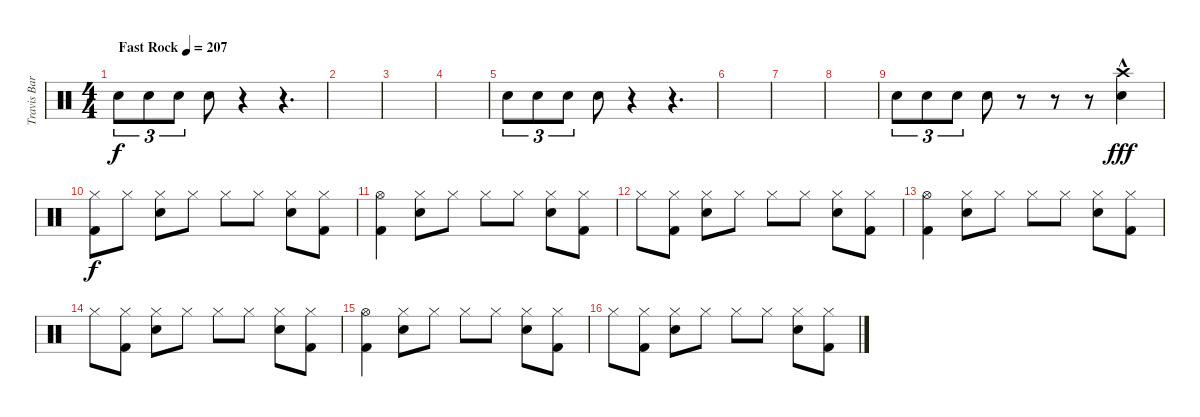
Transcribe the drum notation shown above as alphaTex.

\track ("Travis Barker" "Travis Bar") {instrument percussion}
\staff {score}
\articulation defaults
\ts (4 4)
\tempo (207 "Fast Rock")
\clef neutral
\ks c "Electric Snare (hit)".8{tu (3 2) dy f} "Electric Snare (hit)".8{tu (3 2)} "Electric Snare (hit)".8{tu (3 2)} "Electric Snare (hit)".8
r.4 r.4{d} |
|
|
|
"Electric Snare (hit)".8{tu (3 2)} "Electric Snare (hit)".8{tu (3 2)} "Electric Snare (hit)".8{tu (3 2)} "Electric Snare (hit)".8 r.4 r.4{d} |
|
|
|
"Electric Snare (hit)".8{tu (3 2)} "Electric Snare (hit)".8{tu (3 2)} "Electric Snare (hit)".8{tu (3 2)} "Electric Snare (hit)".8 r.8 r.8 r.8 ("Crash high (hit)"{hac} "Electric Snare (hit)").4{dy fff} |
("Hi-Hat (closed)" "Kick (hit) 2").8{dy f} "Hi-Hat (closed)".8 ("Hi-Hat (closed)" "Electric Snare (hit)").8 "Hi-Hat (closed)".8 "Hi-Hat (closed)".8 "Hi-Hat (closed)".8 ("Hi-Hat (closed)" "Electric Snare (hit)").8 ("Hi-Hat (closed)" "Kick (hit) 2").8 |
("Hi-Hat (open)" "Kick (hit) 2").4 ("Hi-Hat (closed)" "Electric Snare (hit)").8 "Hi-Hat (closed)".8 "Hi-Hat (closed)".8 "Hi-Hat (closed)".8 ("Hi-Hat (closed)" "Electric Snare (hit)").8 ("Hi-Hat (closed)" "Kick (hit) 2").8 |
"Hi-Hat (closed)".8 ("Hi-Hat (closed)" "Kick (hit) 2").8 ("Hi-Hat (closed)" "Electric Snare (hit)").8 "Hi-Hat (closed)".8 "Hi-Hat (closed)".8 "Hi-Hat (closed)".8 ("Hi-Hat (closed)" "Electric Snare (hit)").8 ("Hi-Hat (closed)" "Kick (hit) 2").8 |
("Hi-Hat (open)" "Kick (hit) 2").4 ("Hi-Hat (closed)" "Electric Snare (hit)").8 "Hi-Hat (closed)".8 "Hi-Hat (closed)".8 "Hi-Hat (closed)".8 ("Hi-Hat (closed)" "Electric Snare (hit)").8 ("Hi-Hat (closed)" "Kick (hit) 2").8 |
"Hi-Hat (closed)".8 ("Hi-Hat (closed)" "Kick (hit) 2").8 ("Hi-Hat (closed)" "Electric Snare (hit)").8 "Hi-Hat (closed)".8 "Hi-Hat (closed)".8 "Hi-Hat (closed)".8 ("Hi-Hat (closed)" "Electric Snare (hit)").8 ("Hi-Hat (closed)" "Kick (hit) 2").8 |
("Hi-Hat (open)" "Kick (hit) 2").4 ("Hi-Hat (closed)" "Electric Snare (hit)").8 "Hi-Hat (closed)".8 "Hi-Hat (closed)".8 "Hi-Hat (closed)".8 ("Hi-Hat (closed)" "Electric Snare (hit)").8 ("Hi-Hat (closed)" "Kick (hit) 2").8 |
"Hi-Hat (closed)".8 ("Hi-Hat (closed)" "Kick (hit) 2").8 ("Hi-Hat (closed)" "Electric Snare (hit)").8 "Hi-Hat (closed)".8 "Hi-Hat (closed)".8 "Hi-Hat (closed)".8 ("Hi-Hat (closed)" "Electric Snare (hit)").8 ("Hi-Hat (closed)" "Kick (hit) 2").8
